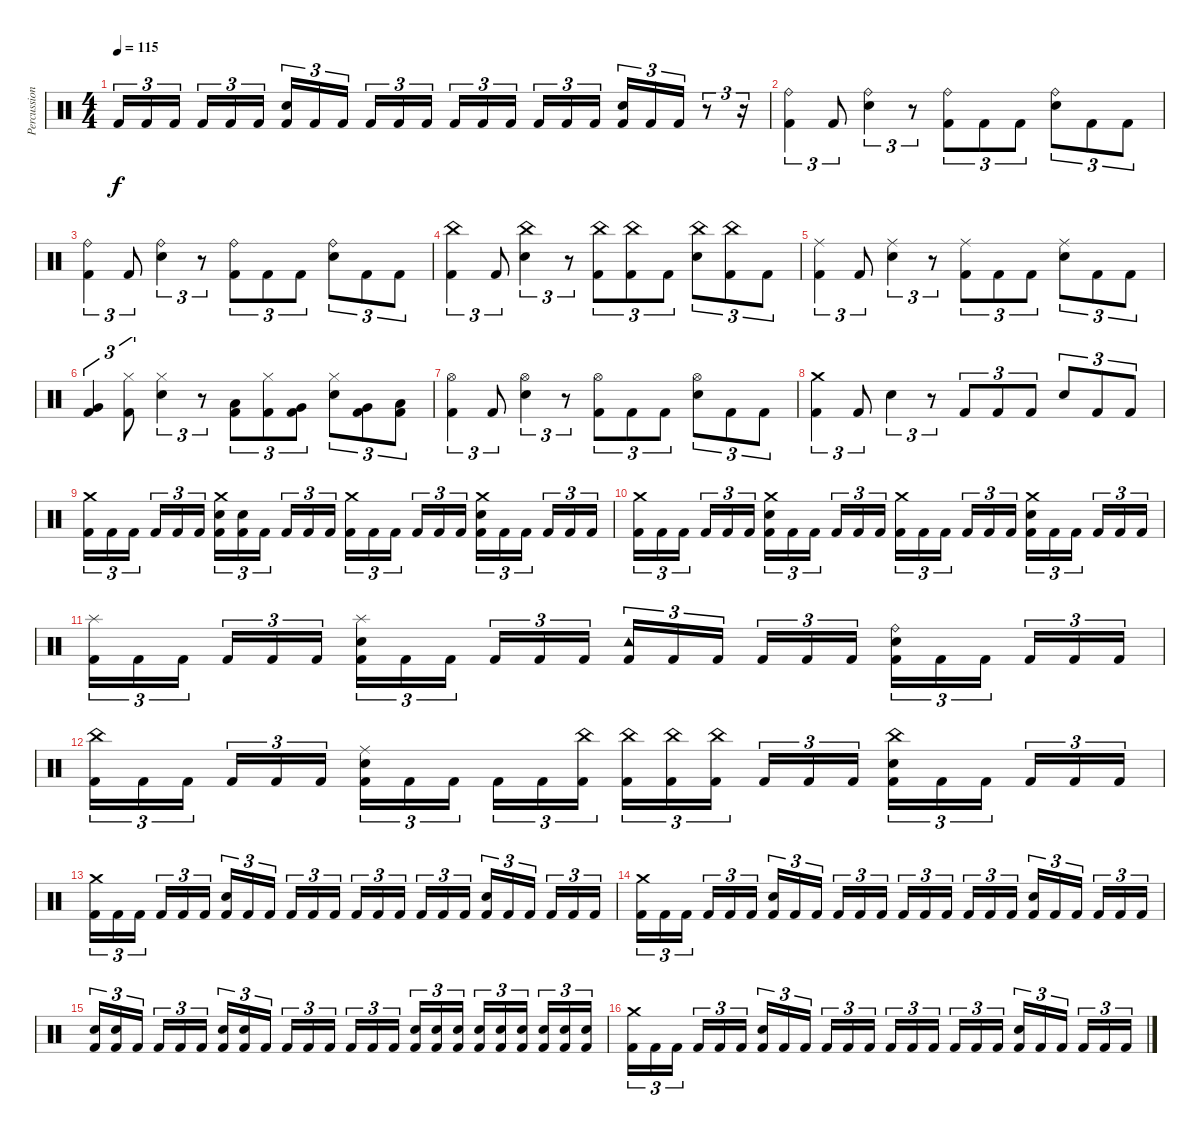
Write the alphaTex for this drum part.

\track ("Percussion" "Percussion") {instrument percussion}
\staff {score}
\articulation defaults
\ts (4 4)
\tempo 115
\clef neutral
\ks c "Kick (hit) 2".16{tu (3 2) dy f} "Kick (hit) 2".16{tu (3 2)} "Kick (hit) 2".16{tu (3 2) beam splitsecondary} "Kick (hit) 2".16{tu (3 2)} "Kick (hit) 2".16{tu (3 2)} "Kick (hit) 2".16{tu (3 2)}
("Snare (hit) 2" "Kick (hit) 2").16{tu (3 2)} "Kick (hit) 2".16{tu (3 2)} "Kick (hit) 2".16{tu (3 2) beam splitsecondary} "Kick (hit) 2".16{tu (3 2)} "Kick (hit) 2".16{tu (3 2)} "Kick (hit) 2".16{tu (3 2)} "Kick (hit) 2".16{tu (3 2)} "Kick (hit) 2".16{tu (3 2)} "Kick (hit) 2".16{tu (3 2) beam splitsecondary} "Kick (hit) 2".16{tu (3 2)} "Kick (hit) 2".16{tu (3 2)} "Kick (hit) 2".16{tu (3 2)} ("Snare (hit) 2" "Kick (hit) 2").16{tu (3 2)} "Kick (hit) 2".16{tu (3 2)} "Kick (hit) 2".16{tu (3 2)} r.8{tu (3 2)} r.16{tu (3 2)} |
("Ride (bell)" "Kick (hit) 2").4{tu (3 2)} "Kick (hit) 2".8{tu (3 2)} ("Ride (bell)" "Snare (hit) 2").4{tu (3 2)} r.8{tu (3 2)} ("Ride (bell)" "Kick (hit) 2").8{tu (3 2)} "Kick (hit) 2".8{tu (3 2)} "Kick (hit) 2".8{tu (3 2)} ("Ride (bell)" "Snare (hit) 2").8{tu (3 2)} "Kick (hit) 2".8{tu (3 2)} "Kick (hit) 2".8{tu (3 2)} |
("Ride (bell)" "Kick (hit) 2").4{tu (3 2)} "Kick (hit) 2".8{tu (3 2)} ("Ride (bell)" "Snare (hit) 2").4{tu (3 2)} r.8{tu (3 2)} ("Ride (bell)" "Kick (hit) 2").8{tu (3 2)} "Kick (hit) 2".8{tu (3 2)} "Kick (hit) 2".8{tu (3 2)} ("Ride (bell)" "Snare (hit) 2").8{tu (3 2)} "Kick (hit) 2".8{tu (3 2)} "Kick (hit) 2".8{tu (3 2)} |
("China (hit)" "Kick (hit) 2").4{tu (3 2)} "Kick (hit) 2".8{tu (3 2)} ("China (hit)" "Snare (hit) 2").4{tu (3 2)} r.8{tu (3 2)} ("China (hit)" "Kick (hit) 2").8{tu (3 2)} ("China (hit)" "Kick (hit) 2").8{tu (3 2)} "Kick (hit) 2".8{tu (3 2)} ("China (hit)" "Snare (hit) 2").8{tu (3 2)} ("China (hit)" "Kick (hit) 2").8{tu (3 2)} "Kick (hit) 2".8{tu (3 2)} |
("Ride (middle)" "Kick (hit) 2").4{tu (3 2)} "Kick (hit) 2".8{tu (3 2)} ("Ride (middle)" "Snare (hit) 2").4{tu (3 2)} r.8{tu (3 2)} ("Ride (middle)" "Kick (hit) 2").8{tu (3 2)} "Kick (hit) 2".8{tu (3 2)} "Kick (hit) 2".8{tu (3 2)} ("Ride (middle)" "Snare (hit) 2").8{tu (3 2)} "Kick (hit) 2".8{tu (3 2)} "Kick (hit) 2".8{tu (3 2)} |
("Very Low Tom (hit)" "Kick (hit) 2").4{tu (3 2)} ("Hi-Hat (closed)" "Kick (hit) 2").8{tu (3 2)} ("Hi-Hat (closed)" "Snare (hit) 2").4{tu (3 2)} r.8{tu (3 2)} ("Low Floor Tom (hit)" "Kick (hit) 2").8{tu (3 2)} ("Hi-Hat (closed)" "Kick (hit) 2").8{tu (3 2)} ("Very Low Tom (hit)" "Kick (hit) 2").8{tu (3 2)} ("Hi-Hat (closed)" "Snare (hit) 2").8{tu (3 2)} ("Very Low Tom (hit)" "Kick (hit) 2").8{tu (3 2)} ("Low Tom (hit)" "Kick (hit) 2").8{tu (3 2)} |
("Hi-Hat (open)" "Kick (hit) 2").4{tu (3 2)} "Kick (hit) 2".8{tu (3 2)} ("Hi-Hat (open)" "Snare (hit) 2").4{tu (3 2)} r.8{tu (3 2)} ("Hi-Hat (open)" "Kick (hit) 2").8{tu (3 2)} "Kick (hit) 2".8{tu (3 2)} "Kick (hit) 2".8{tu (3 2)} ("Hi-Hat (open)" "Snare (hit) 2").8{tu (3 2)} "Kick (hit) 2".8{tu (3 2)} "Kick (hit) 2".8{tu (3 2)} |
("Crash medium (hit)" "Kick (hit) 2").4{tu (3 2)} "Kick (hit) 2".8{tu (3 2)} "Snare (hit) 2".4{tu (3 2)} r.8{tu (3 2)} "Kick (hit) 2".8{tu (3 2)} "Kick (hit) 2".8{tu (3 2)} "Kick (hit) 2".8{tu (3 2)} "Snare (hit) 2".8{tu (3 2)} "Kick (hit) 2".8{tu (3 2)} "Kick (hit) 2".8{tu (3 2)} |
("Crash medium (hit)" "Kick (hit) 2").16{tu (3 2)} "Kick (hit) 2".16{tu (3 2)} "Kick (hit) 2".16{tu (3 2) beam splitsecondary} "Kick (hit) 2".16{tu (3 2)} "Kick (hit) 2".16{tu (3 2)} "Kick (hit) 2".16{tu (3 2)} ("Crash medium (hit)" "Snare (hit) 2" "Kick (hit) 2").16{tu (3 2)} ("Snare (hit)" "Kick (hit) 2").16{tu (3 2)} "Kick (hit) 2".16{tu (3 2) beam splitsecondary} "Kick (hit) 2".16{tu (3 2)} "Kick (hit) 2".16{tu (3 2)} "Kick (hit) 2".16{tu (3 2)} ("Crash medium (hit)" "Kick (hit) 2").16{tu (3 2)} "Kick (hit) 2".16{tu (3 2)} "Kick (hit) 2".16{tu (3 2) beam splitsecondary} "Kick (hit) 2".16{tu (3 2)} "Kick (hit) 2".16{tu (3 2)} "Kick (hit) 2".16{tu (3 2)} ("Crash medium (hit)" "Snare (hit) 2" "Kick (hit) 2").16{tu (3 2)} "Kick (hit) 2".16{tu (3 2)} "Kick (hit) 2".16{tu (3 2) beam splitsecondary} "Kick (hit) 2".16{tu (3 2)} "Kick (hit) 2".16{tu (3 2)} "Kick (hit) 2".16{tu (3 2)} |
("Crash medium (hit)" "Kick (hit) 2").16{tu (3 2)} "Kick (hit) 2".16{tu (3 2)} "Kick (hit) 2".16{tu (3 2) beam splitsecondary} "Kick (hit) 2".16{tu (3 2)} "Kick (hit) 2".16{tu (3 2)} "Kick (hit) 2".16{tu (3 2)} ("Crash medium (hit)" "Snare (hit) 2" "Kick (hit) 2").16{tu (3 2)} "Kick (hit) 2".16{tu (3 2)} "Kick (hit) 2".16{tu (3 2) beam splitsecondary} "Kick (hit) 2".16{tu (3 2)} "Kick (hit) 2".16{tu (3 2)} "Kick (hit) 2".16{tu (3 2)} ("Crash medium (hit)" "Kick (hit) 2").16{tu (3 2)} "Kick (hit) 2".16{tu (3 2)} "Kick (hit) 2".16{tu (3 2) beam splitsecondary} "Kick (hit) 2".16{tu (3 2)} "Kick (hit) 2".16{tu (3 2)} "Kick (hit) 2".16{tu (3 2)} ("Crash medium (hit)" "Snare (hit) 2" "Kick (hit) 2").16{tu (3 2)} "Kick (hit) 2".16{tu (3 2)} "Kick (hit) 2".16{tu (3 2) beam splitsecondary} "Kick (hit) 2".16{tu (3 2)} "Kick (hit) 2".16{tu (3 2)} "Kick (hit) 2".16{tu (3 2)} |
("Splash (hit)" "Kick (hit) 2").16{tu (3 2)} "Kick (hit) 2".16{tu (3 2)} "Kick (hit) 2".16{tu (3 2) beam splitsecondary} "Kick (hit) 2".16{tu (3 2)} "Kick (hit) 2".16{tu (3 2)} "Kick (hit) 2".16{tu (3 2)} ("Splash (hit)" "Snare (hit) 2" "Kick (hit) 2").16{tu (3 2)} "Kick (hit) 2".16{tu (3 2)} "Kick (hit) 2".16{tu (3 2) beam splitsecondary} "Kick (hit) 2".16{tu (3 2)} "Kick (hit) 2".16{tu (3 2)} "Kick (hit) 2".16{tu (3 2)} ("Tambourine (hit)" "Kick (hit) 2").16{tu (3 2)} "Kick (hit) 2".16{tu (3 2)} "Kick (hit) 2".16{tu (3 2) beam splitsecondary} "Kick (hit) 2".16{tu (3 2)} "Kick (hit) 2".16{tu (3 2)} "Kick (hit) 2".16{tu (3 2)} ("Ride (bell)" "Snare (hit) 2" "Kick (hit) 2").16{tu (3 2)} "Kick (hit) 2".16{tu (3 2)} "Kick (hit) 2".16{tu (3 2) beam splitsecondary} "Kick (hit) 2".16{tu (3 2)} "Kick (hit) 2".16{tu (3 2)} "Kick (hit) 2".16{tu (3 2)} |
("China (hit)" "Kick (hit) 2").16{tu (3 2)} "Kick (hit) 2".16{tu (3 2)} "Kick (hit) 2".16{tu (3 2) beam splitsecondary} "Kick (hit) 2".16{tu (3 2)} "Kick (hit) 2".16{tu (3 2)} "Kick (hit) 2".16{tu (3 2)} ("Ride (middle)" "Snare (hit) 2" "Kick (hit) 2").16{tu (3 2)} "Kick (hit) 2".16{tu (3 2)} "Kick (hit) 2".16{tu (3 2) beam splitsecondary} "Kick (hit) 2".16{tu (3 2)} "Kick (hit) 2".16{tu (3 2)} ("China (hit)" "Kick (hit) 2").16{tu (3 2)} ("China (hit)" "Kick (hit) 2").16{tu (3 2)} ("China (hit)" "Kick (hit) 2").16{tu (3 2)} ("China (hit)" "Kick (hit) 2").16{tu (3 2) beam splitsecondary} "Kick (hit) 2".16{tu (3 2)} "Kick (hit) 2".16{tu (3 2)} "Kick (hit) 2".16{tu (3 2)} ("China (hit)" "Snare (hit) 2" "Kick (hit) 2").16{tu (3 2)} "Kick (hit) 2".16{tu (3 2)} "Kick (hit) 2".16{tu (3 2) beam splitsecondary} "Kick (hit) 2".16{tu (3 2)} "Kick (hit) 2".16{tu (3 2)} "Kick (hit) 2".16{tu (3 2)} |
("Crash medium (hit)" "Kick (hit) 2").16{tu (3 2)} "Kick (hit) 2".16{tu (3 2)} "Kick (hit) 2".16{tu (3 2) beam splitsecondary} "Kick (hit) 2".16{tu (3 2)} "Kick (hit) 2".16{tu (3 2)} "Kick (hit) 2".16{tu (3 2)} ("Snare (hit) 2" "Kick (hit) 2").16{tu (3 2)} "Kick (hit) 2".16{tu (3 2)} "Kick (hit) 2".16{tu (3 2) beam splitsecondary} "Kick (hit) 2".16{tu (3 2)} "Kick (hit) 2".16{tu (3 2)} "Kick (hit) 2".16{tu (3 2)} "Kick (hit) 2".16{tu (3 2)} "Kick (hit) 2".16{tu (3 2)} "Kick (hit) 2".16{tu (3 2) beam splitsecondary} "Kick (hit) 2".16{tu (3 2)} "Kick (hit) 2".16{tu (3 2)} "Kick (hit) 2".16{tu (3 2)} ("Snare (hit) 2" "Kick (hit) 2").16{tu (3 2)} "Kick (hit) 2".16{tu (3 2)} "Kick (hit) 2".16{tu (3 2) beam splitsecondary} "Kick (hit) 2".16{tu (3 2)} "Kick (hit) 2".16{tu (3 2)} "Kick (hit) 2".16{tu (3 2)} |
("Crash medium (hit)" "Kick (hit) 2").16{tu (3 2)} "Kick (hit) 2".16{tu (3 2)} "Kick (hit) 2".16{tu (3 2) beam splitsecondary} "Kick (hit) 2".16{tu (3 2)} "Kick (hit) 2".16{tu (3 2)} "Kick (hit) 2".16{tu (3 2)} ("Snare (hit) 2" "Kick (hit) 2").16{tu (3 2)} "Kick (hit) 2".16{tu (3 2)} "Kick (hit) 2".16{tu (3 2) beam splitsecondary} "Kick (hit) 2".16{tu (3 2)} "Kick (hit) 2".16{tu (3 2)} "Kick (hit) 2".16{tu (3 2)} "Kick (hit) 2".16{tu (3 2)} "Kick (hit) 2".16{tu (3 2)} "Kick (hit) 2".16{tu (3 2) beam splitsecondary} "Kick (hit) 2".16{tu (3 2)} "Kick (hit) 2".16{tu (3 2)} "Kick (hit) 2".16{tu (3 2)} ("Snare (hit) 2" "Kick (hit) 2").16{tu (3 2)} "Kick (hit) 2".16{tu (3 2)} "Kick (hit) 2".16{tu (3 2) beam splitsecondary} "Kick (hit) 2".16{tu (3 2)} "Kick (hit) 2".16{tu (3 2)} "Kick (hit) 2".16{tu (3 2)} |
("Snare (hit) 2" "Kick (hit) 2").16{tu (3 2)} ("Snare (hit) 2" "Kick (hit) 2").16{tu (3 2)} "Kick (hit) 2".16{tu (3 2) beam splitsecondary} "Kick (hit) 2".16{tu (3 2)} "Kick (hit) 2".16{tu (3 2)} "Kick (hit) 2".16{tu (3 2)} ("Snare (hit) 2" "Kick (hit) 2").16{tu (3 2)} ("Snare (hit) 2" "Kick (hit) 2").16{tu (3 2)} "Kick (hit) 2".16{tu (3 2) beam splitsecondary} "Kick (hit) 2".16{tu (3 2)} "Kick (hit) 2".16{tu (3 2)} "Kick (hit) 2".16{tu (3 2)} "Kick (hit) 2".16{tu (3 2)} "Kick (hit) 2".16{tu (3 2)} "Kick (hit) 2".16{tu (3 2) beam splitsecondary} ("Snare (hit) 2" "Kick (hit) 2").16{tu (3 2)} ("Snare (hit) 2" "Kick (hit) 2").16{tu (3 2)} ("Snare (hit) 2" "Kick (hit) 2").16{tu (3 2)} ("Snare (hit) 2" "Kick (hit) 2").16{tu (3 2)} ("Snare (hit) 2" "Kick (hit) 2").16{tu (3 2)} ("Snare (hit) 2" "Kick (hit) 2").16{tu (3 2) beam splitsecondary} ("Snare (hit) 2" "Kick (hit) 2").16{tu (3 2)} ("Snare (hit) 2" "Kick (hit) 2").16{tu (3 2)} ("Snare (hit) 2" "Kick (hit) 2").16{tu (3 2)} |
("Crash medium (hit)" "Kick (hit) 2").16{tu (3 2)} "Kick (hit) 2".16{tu (3 2)} "Kick (hit) 2".16{tu (3 2) beam splitsecondary} "Kick (hit) 2".16{tu (3 2)} "Kick (hit) 2".16{tu (3 2)} "Kick (hit) 2".16{tu (3 2)} ("Snare (hit) 2" "Kick (hit) 2").16{tu (3 2)} "Kick (hit) 2".16{tu (3 2)} "Kick (hit) 2".16{tu (3 2) beam splitsecondary} "Kick (hit) 2".16{tu (3 2)} "Kick (hit) 2".16{tu (3 2)} "Kick (hit) 2".16{tu (3 2)} "Kick (hit) 2".16{tu (3 2)} "Kick (hit) 2".16{tu (3 2)} "Kick (hit) 2".16{tu (3 2) beam splitsecondary} "Kick (hit) 2".16{tu (3 2)} "Kick (hit) 2".16{tu (3 2)} "Kick (hit) 2".16{tu (3 2)} ("Snare (hit) 2" "Kick (hit) 2").16{tu (3 2)} "Kick (hit) 2".16{tu (3 2)} "Kick (hit) 2".16{tu (3 2) beam splitsecondary} "Kick (hit) 2".16{tu (3 2)} "Kick (hit) 2".16{tu (3 2)} "Kick (hit) 2".16{tu (3 2)}
